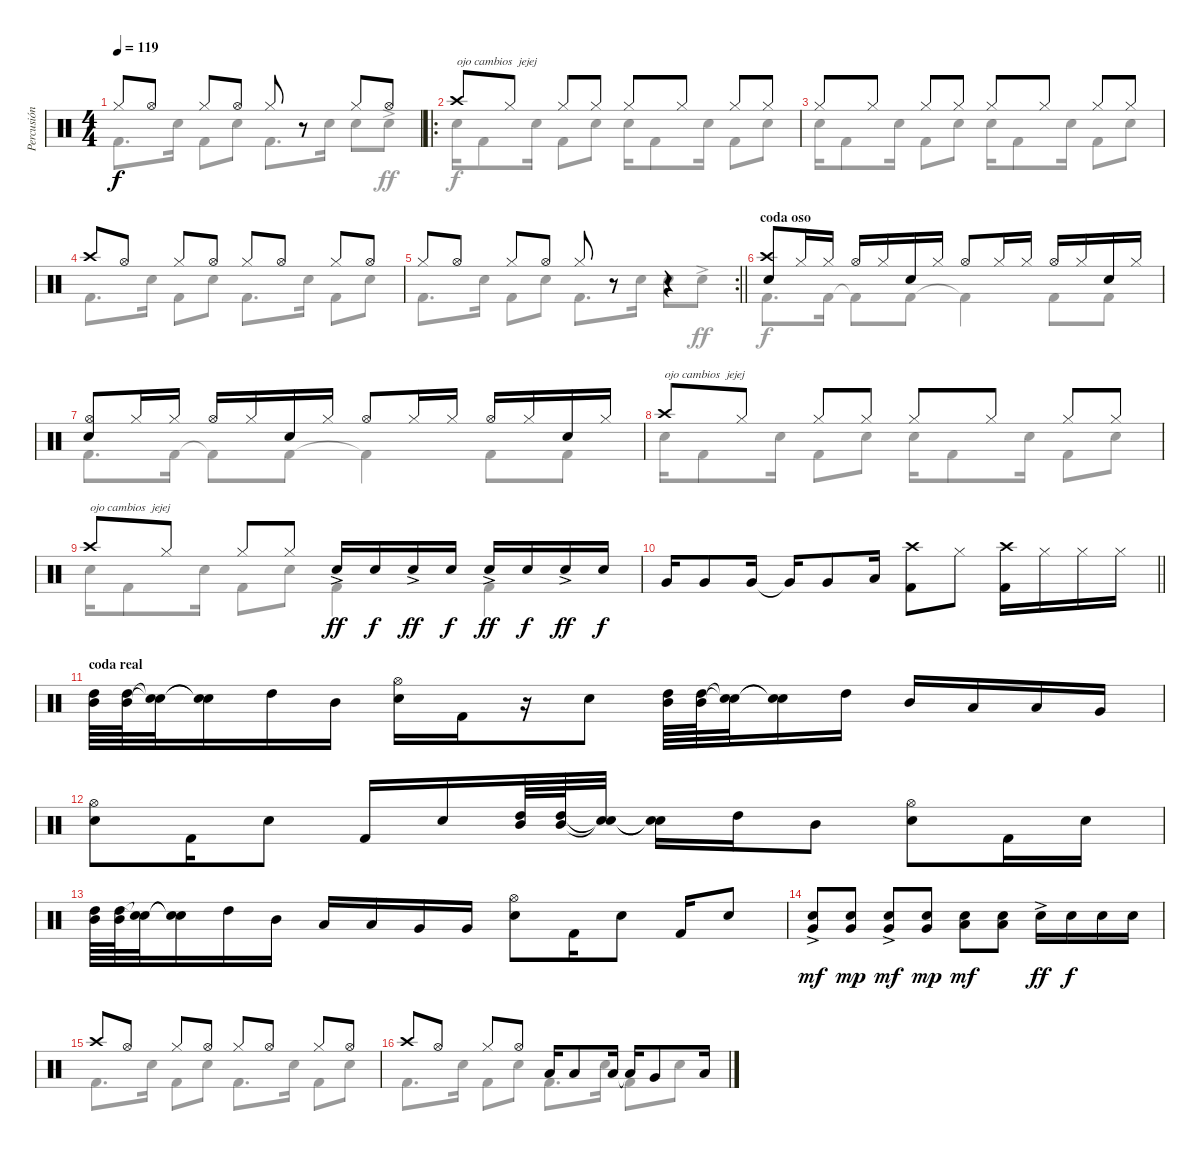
\track ("Percusión" "Percusión") {mute instrument percussion}
\staff {score}
\articulation defaults
\voice
\ts (4 4)
\tempo 119
\clef neutral
\ks c "Hi-Hat (closed)".8{dy f} "Hi-Hat (open)".8 "Hi-Hat (closed)".8 "Hi-Hat (open)".8 "Hi-Hat (closed)".8
r.8 "Hi-Hat (closed)".8 "Hi-Hat (open)".8 |
\ro "Crash high (hit)".8{txt "ojo cambios  jejej"} "Hi-Hat (closed)".8 "Hi-Hat (closed)".8 "Hi-Hat (closed)".8 "Hi-Hat (closed)".8 "Hi-Hat (closed)".8 "Hi-Hat (closed)".8 "Hi-Hat (closed)".8
|
"Hi-Hat (closed)".8 "Hi-Hat (closed)".8 "Hi-Hat (closed)".8 "Hi-Hat (closed)".8 "Hi-Hat (closed)".8 "Hi-Hat (closed)".8 "Hi-Hat (closed)".8 "Hi-Hat (closed)".8 |
"Crash high (hit)".8 "Hi-Hat (open)".8 "Hi-Hat (closed)".8 "Hi-Hat (open)".8 "Hi-Hat (closed)".8 "Hi-Hat (open)".8 "Hi-Hat (closed)".8 "Hi-Hat (open)".8 |
\rc 2
\barLineRight lightlight "Hi-Hat (closed)".8 "Hi-Hat (open)".8 "Hi-Hat (closed)".8 "Hi-Hat (open)".8 "Hi-Hat (closed)".8
r.8 r.4 |
\section ("" "coda oso")
("Crash high (hit)" "Electric Snare (hit)").8 "Hi-Hat (closed)".16 "Hi-Hat (closed)".16 "Hi-Hat (open)".16 "Hi-Hat (closed)".16 "Electric Snare (hit)".16 "Hi-Hat (closed)".16 "Hi-Hat (open)".8 "Hi-Hat (closed)".16 "Hi-Hat (closed)".16 "Hi-Hat (open)".16 "Hi-Hat (closed)".16 "Electric Snare (hit)".16 "Hi-Hat (closed)".16 |
("Hi-Hat (open)" "Electric Snare (hit)").8 "Hi-Hat (closed)".16 "Hi-Hat (closed)".16 "Hi-Hat (open)".16 "Hi-Hat (closed)".16 "Electric Snare (hit)".16 "Hi-Hat (closed)".16 "Hi-Hat (open)".8 "Hi-Hat (closed)".16 "Hi-Hat (closed)".16 "Hi-Hat (open)".16 "Hi-Hat (closed)".16 "Electric Snare (hit)".16 "Hi-Hat (closed)".16 |
"Crash high (hit)".8{txt "ojo cambios  jejej"} "Hi-Hat (closed)".8 "Hi-Hat (closed)".8 "Hi-Hat (closed)".8 "Hi-Hat (closed)".8 "Hi-Hat (closed)".8 "Hi-Hat (closed)".8 "Hi-Hat (closed)".8 |
"Crash high (hit)".8{txt "ojo cambios  jejej"} "Hi-Hat (closed)".8 "Hi-Hat (closed)".8 "Hi-Hat (closed)".8 "Electric Snare (hit)"{ac}.16{dy ff} "Electric Snare (hit)".16{dy f} "Electric Snare (hit)"{ac}.16{dy ff} "Electric Snare (hit)".16{dy f} "Electric Snare (hit)"{ac}.16{dy ff} "Electric Snare (hit)".16{dy f} "Electric Snare (hit)"{ac}.16{dy ff} "Electric Snare (hit)".16{dy f} |
\barLineRight lightlight "Very Low Tom (hit)".16 "Very Low Tom (hit)".8 "Very Low Tom (hit)".16 "Very Low Tom (hit)"{t}.16 "Very Low Tom (hit)".8 "Low Floor Tom (hit)".16
("Kick (hit) 2" "Crash high (hit)").8 "Hi-Hat (closed)".8 ("Kick (hit) 2" "Crash high (hit)").16 "Hi-Hat (closed)".16 "Hi-Hat (closed)".16 "Hi-Hat (closed)".16 |
\section ("" "coda real")
("High Tom (hit)" "Mid Tom (hit)").64 ("High Tom (hit)" "Mid Tom (hit)").64 ("Snare (hit)"{t} "Snare (hit)"{t}).32 ("Snare (hit)"{t} "Snare (hit)"{t}).16 "High Tom (hit)".16 "Mid Tom (hit)".16 ("Electric Snare (hit)" "Hi-Hat (open)").16 "Kick (hit) 2".16 r.16 "Electric Snare (hit)".8 ("High Tom (hit)" "Mid Tom (hit)").64 ("High Tom (hit)" "Mid Tom (hit)").64 ("Snare (hit)"{t} "Snare (hit)"{t}).32 ("Snare (hit)"{t} "Snare (hit)"{t}).16 "High Tom (hit)".16 "Mid Tom (hit)".16 "Low Tom (hit)".16 "Low Tom (hit)".16 "Very Low Tom (hit)".16 |
("Electric Snare (hit)" "Hi-Hat (open)").8 "Kick (hit) 2".16 "Electric Snare (hit)".8 "Kick (hit) 2".16 "Electric Snare (hit)".16 ("High Tom (hit)" "Mid Tom (hit)").64 ("High Tom (hit)" "Mid Tom (hit)").64 ("Snare (hit)"{t} "Snare (hit)"{t}).32 ("Snare (hit)"{t} "Snare (hit)"{t}).16 "High Tom (hit)".16 "Mid Tom (hit)".8 ("Electric Snare (hit)" "Hi-Hat (open)").8 "Kick (hit) 2".16 "Electric Snare (hit)".16 |
("High Tom (hit)" "Mid Tom (hit)").64 ("High Tom (hit)" "Mid Tom (hit)").64 ("Snare (hit)"{t} "Snare (hit)"{t}).32 ("Snare (hit)"{t} "Snare (hit)"{t}).16 "High Tom (hit)".16 "Mid Tom (hit)".16 "Low Tom (hit)".16 "Low Tom (hit)".16 "Very Low Tom (hit)".16 "Very Low Tom (hit)".16 ("Electric Snare (hit)" "Hi-Hat (open)").8 "Kick (hit) 2".16 "Electric Snare (hit)".8 "Kick (hit) 2".16 "Electric Snare (hit)".8 |
("Very Low Tom (hit)" "Snare (hit) 2"{ac}).8{dy mf} ("Snare (hit) 2" "Very Low Tom (hit)").8{dy mp} ("Very Low Tom (hit)" "Snare (hit) 2"{ac}).8{dy mf} ("Very Low Tom (hit)" "Snare (hit) 2").8{dy mp} ("Low Floor Tom (hit)" "Snare (hit) 2").8{dy mf} ("Snare (hit) 2" "Low Floor Tom (hit)").8 "Snare (hit) 2"{ac}.16{dy ff} "Snare (hit) 2".16{dy f} "Snare (hit) 2".16 "Snare (hit) 2".16 |
"Crash high (hit)".8 "Hi-Hat (open)".8 "Hi-Hat (closed)".8 "Hi-Hat (open)".8 "Hi-Hat (closed)".8 "Hi-Hat (open)".8 "Hi-Hat (closed)".8 "Hi-Hat (open)".8 |
"Crash high (hit)".8 "Hi-Hat (open)".8 "Hi-Hat (closed)".8 "Hi-Hat (open)".8 "Low Tom (hit)".16 "Low Tom (hit)".8 "Low Tom (hit)".16 "Low Tom (hit)"{t}.16 "Very Low Tom (hit)".8 "Low Floor Tom (hit)".16
\voice
\clef neutral
\ottava regular
\simile none
\ks c "Kick (hit) 2".8{d dy f} "Snare (hit) 2".16 "Kick (hit) 2".8 "Snare (hit) 2".8 "Kick (hit) 2".8{d} "Snare (hit) 2".16 "Electric Snare (hit)".8 "Electric Snare (hit)"{ac}.8{dy ff}
|
"Electric Snare (hit)".16{dy f} "Kick (hit) 2".8 "Electric Snare (hit)".16 "Kick (hit) 2".8 "Electric Snare (hit)".8 "Electric Snare (hit)".16 "Kick (hit) 2".8 "Electric Snare (hit)".16 "Kick (hit) 2".8 "Electric Snare (hit)".8 |
"Electric Snare (hit)".16 "Kick (hit) 2".8 "Electric Snare (hit)".16 "Kick (hit) 2".8 "Electric Snare (hit)".8 "Electric Snare (hit)".16 "Kick (hit) 2".8 "Electric Snare (hit)".16 "Kick (hit) 2".8 "Electric Snare (hit)".8 |
"Kick (hit) 2".8{d} "Electric Snare (hit)".16 "Kick (hit) 2".8 "Electric Snare (hit)".8 "Kick (hit) 2".8{d} "Electric Snare (hit)".16 "Kick (hit) 2".8 "Electric Snare (hit)".8 |
\barLineRight lightlight "Kick (hit) 2".8{d} "Electric Snare (hit)".16 "Kick (hit) 2".8 "Electric Snare (hit)".8 "Kick (hit) 2".8{d} "Electric Snare (hit)".16 "Electric Snare (hit)".8 "Electric Snare (hit)"{ac}.8{dy ff}
|
"Kick (hit) 2".8{d dy f} "Kick (hit) 2".16 "Kick (hit) 2"{t}.8 "Kick (hit) 2".8 "Kick (hit) 2"{t}.4 "Kick (hit) 2".8 "Kick (hit) 2".8 |
"Kick (hit) 2".8{d} "Kick (hit) 2".16 "Kick (hit) 2"{t}.8 "Kick (hit) 2".8 "Kick (hit) 2"{t}.4 "Kick (hit) 2".8 "Kick (hit) 2".8 |
"Electric Snare (hit)".16 "Kick (hit) 2".8 "Electric Snare (hit)".16 "Kick (hit) 2".8 "Electric Snare (hit)".8 "Electric Snare (hit)".16 "Kick (hit) 2".8 "Electric Snare (hit)".16 "Kick (hit) 2".8 "Electric Snare (hit)".8 |
"Electric Snare (hit)".16 "Kick (hit) 2".8 "Electric Snare (hit)".16 "Kick (hit) 2".8 "Electric Snare (hit)".8 "Kick (hit) 2".4 "Kick (hit) 2".4 |
\barLineRight lightlight
|
|
|
|
|
"Kick (hit) 2".8{d} "Snare (hit) 2".16 "Kick (hit) 2".8 "Snare (hit) 2".8 "Kick (hit) 2".8{d} "Snare (hit) 2".16 "Kick (hit) 2".8 "Snare (hit) 2".8 |
"Kick (hit) 2".8{d} "Snare (hit) 2".16 "Kick (hit) 2".8 "Snare (hit) 2".8 "Kick (hit) 2".8{d} "Snare (hit) 2".16 "Kick (hit) 2".8 "Snare (hit) 2".8
